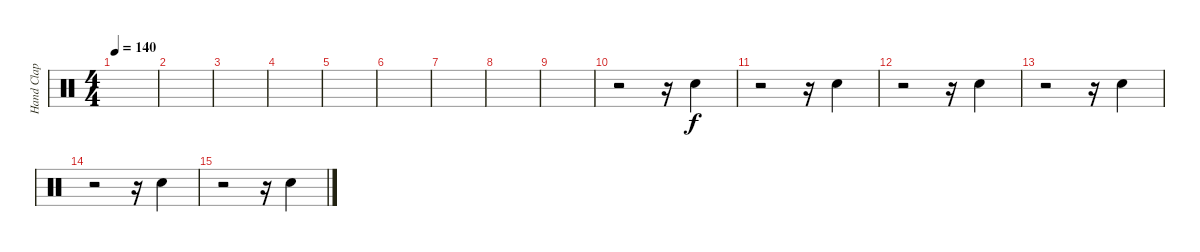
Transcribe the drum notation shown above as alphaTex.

\track ("Hand Clap" "Hand Clap") {instrument percussion}
\staff {score}
\articulation defaults
\ts (4 4)
\tempo 140
\clef neutral
\ks c
|
|
|
|
|
|
|
|
|
r.2 r.16 "Hand Clap (hit)".4 |
r.2 r.16 "Hand Clap (hit)".4 |
r.2 r.16 "Hand Clap (hit)".4 |
r.2 r.16 "Hand Clap (hit)".4 |
r.2 r.16 "Hand Clap (hit)".4 |
r.2 r.16 "Hand Clap (hit)".4
